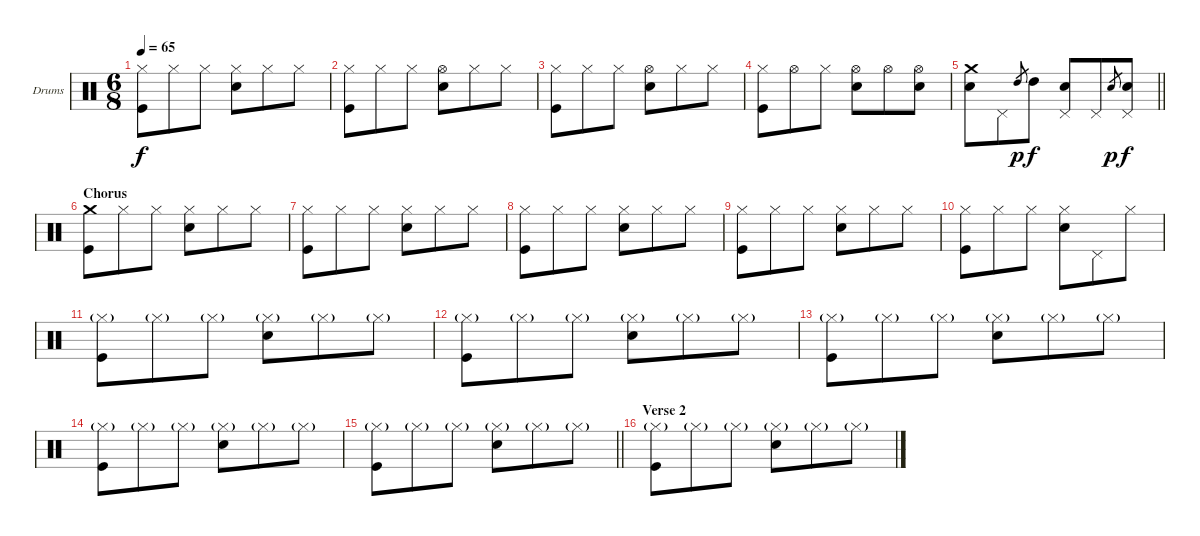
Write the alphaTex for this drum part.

\bracketExtendMode groupsimilarinstruments
\firstSystemTrackNameOrientation horizontal
\otherSystemsTrackNameOrientation horizontal
\track ("Drumkit" "Drums") {instrument percussion}
\staff {score}
\articulation defaults
\ts (6 8)
\tempo 65
\clef neutral
\ks c
("Hi-Hat (closed)" "Kick (hit)").8{dy f} "Hi-Hat (closed)".8 "Hi-Hat (closed)".8 ("Hi-Hat (closed)" "Snare (hit) 2").8 "Hi-Hat (closed)".8 "Hi-Hat (closed)".8 |
("Hi-Hat (closed)" "Kick (hit)").8 "Hi-Hat (closed)".8 "Hi-Hat (closed)".8 ("Hi-Hat (open)" "Snare (hit) 2").8 "Hi-Hat (closed)".8 "Hi-Hat (closed)".8 |
("Hi-Hat (closed)" "Kick (hit)").8 "Hi-Hat (closed)".8 "Hi-Hat (closed)".8 ("Hi-Hat (open)" "Snare (hit) 2").8 "Hi-Hat (closed)".8 "Hi-Hat (closed)".8 |
("Hi-Hat (closed)" "Kick (hit)").8 "Hi-Hat (open)".8 "Hi-Hat (closed)".8 ("Hi-Hat (open)" "Snare (hit) 2").8 "Hi-Hat (open)".8 ("Hi-Hat (open)" "Snare (hit) 2").8 |
\barLineRight lightlight
("Crash medium (hit)" "Snare (hit) 2").8 "Pedal Hi-Hat (hit)".8 "High Tom (hit)".8{gr dy p} "High Tom (hit)".8{dy f} ("Snare (hit) 2" "Pedal Hi-Hat (hit)").8 "Pedal Hi-Hat (hit)".8 "Snare (hit) 2".8{gr dy p} ("Snare (hit) 2" "Pedal Hi-Hat (hit)").8{dy f} |
\section ("" "Chorus")
("Crash medium (hit)" "Kick (hit)").8 "Hi-Hat (closed)".8 "Hi-Hat (closed)".8 ("Hi-Hat (closed)" "Snare (hit) 2").8 "Hi-Hat (closed)".8 "Hi-Hat (closed)".8 |
("Hi-Hat (closed)" "Kick (hit)").8 "Hi-Hat (closed)".8 "Hi-Hat (closed)".8 ("Hi-Hat (closed)" "Snare (hit) 2").8 "Hi-Hat (closed)".8 "Hi-Hat (closed)".8 |
("Hi-Hat (closed)" "Kick (hit)").8 "Hi-Hat (closed)".8 "Hi-Hat (closed)".8 ("Hi-Hat (closed)" "Snare (hit) 2").8 "Hi-Hat (closed)".8 "Hi-Hat (closed)".8 |
("Hi-Hat (closed)" "Kick (hit)").8 "Hi-Hat (closed)".8 "Hi-Hat (closed)".8 ("Hi-Hat (closed)" "Snare (hit) 2").8 "Hi-Hat (closed)".8 "Hi-Hat (closed)".8 |
("Hi-Hat (closed)" "Kick (hit)").8 "Hi-Hat (closed)".8 "Hi-Hat (closed)".8 ("Hi-Hat (closed)" "Snare (hit) 2").8 "Pedal Hi-Hat (hit)".8 "Hi-Hat (closed)".8 |
("Hi-Hat (closed)"{g} "Kick (hit)").8 "Hi-Hat (closed)"{g}.8 "Hi-Hat (closed)"{g}.8 ("Hi-Hat (closed)"{g} "Snare (hit) 2").8 "Hi-Hat (closed)"{g}.8 "Hi-Hat (closed)"{g}.8 |
("Hi-Hat (closed)"{g} "Kick (hit)").8 "Hi-Hat (closed)"{g}.8 "Hi-Hat (closed)"{g}.8 ("Hi-Hat (closed)"{g} "Snare (hit) 2").8 "Hi-Hat (closed)"{g}.8 "Hi-Hat (closed)"{g}.8 |
("Hi-Hat (closed)"{g} "Kick (hit)").8 "Hi-Hat (closed)"{g}.8 "Hi-Hat (closed)"{g}.8 ("Hi-Hat (closed)"{g} "Snare (hit) 2").8 "Hi-Hat (closed)"{g}.8 "Hi-Hat (closed)"{g}.8 |
("Hi-Hat (closed)"{g} "Kick (hit)").8 "Hi-Hat (closed)"{g}.8 "Hi-Hat (closed)"{g}.8 ("Hi-Hat (closed)"{g} "Snare (hit) 2").8 "Hi-Hat (closed)"{g}.8 "Hi-Hat (closed)"{g}.8 |
\barLineRight lightlight
("Hi-Hat (closed)"{g} "Kick (hit)").8 "Hi-Hat (closed)"{g}.8 "Hi-Hat (closed)"{g}.8 ("Hi-Hat (closed)"{g} "Snare (hit) 2").8 "Hi-Hat (closed)"{g}.8 "Hi-Hat (closed)"{g}.8 |
\section ("" "Verse 2")
("Hi-Hat (closed)"{g} "Kick (hit)").8 "Hi-Hat (closed)"{g}.8 "Hi-Hat (closed)"{g}.8 ("Hi-Hat (closed)"{g} "Snare (hit) 2").8 "Hi-Hat (closed)"{g}.8 "Hi-Hat (closed)"{g}.8
